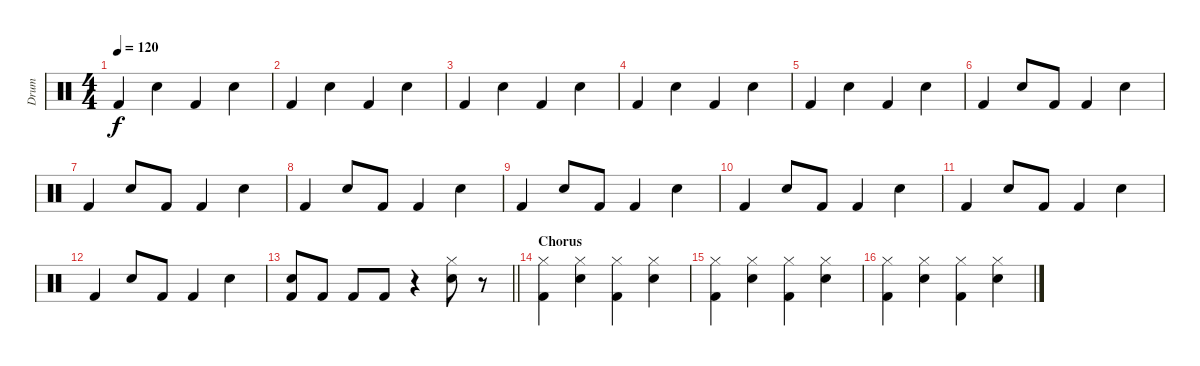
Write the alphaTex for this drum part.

\track ("Drum" "Drum") {instrument percussion}
\staff {score}
\articulation defaults
\ts (4 4)
\tempo 120
\clef neutral
\ks c "Kick (hit) 2".4{dy f} "Electric Snare (hit)".4 "Kick (hit) 2".4 "Electric Snare (hit)".4
|
"Kick (hit) 2".4 "Electric Snare (hit)".4 "Kick (hit) 2".4 "Electric Snare (hit)".4 |
"Kick (hit) 2".4 "Electric Snare (hit)".4 "Kick (hit) 2".4 "Electric Snare (hit)".4 |
"Kick (hit) 2".4 "Electric Snare (hit)".4 "Kick (hit) 2".4 "Electric Snare (hit)".4 |
"Kick (hit) 2".4 "Electric Snare (hit)".4 "Kick (hit) 2".4 "Electric Snare (hit)".4 |
"Kick (hit) 2".4 "Electric Snare (hit)".8 "Kick (hit) 2".8 "Kick (hit) 2".4 "Electric Snare (hit)".4 |
"Kick (hit) 2".4 "Electric Snare (hit)".8 "Kick (hit) 2".8 "Kick (hit) 2".4 "Electric Snare (hit)".4 |
"Kick (hit) 2".4 "Electric Snare (hit)".8 "Kick (hit) 2".8 "Kick (hit) 2".4 "Electric Snare (hit)".4 |
"Kick (hit) 2".4 "Electric Snare (hit)".8 "Kick (hit) 2".8 "Kick (hit) 2".4 "Electric Snare (hit)".4 |
"Kick (hit) 2".4 "Electric Snare (hit)".8 "Kick (hit) 2".8 "Kick (hit) 2".4 "Electric Snare (hit)".4 |
"Kick (hit) 2".4 "Electric Snare (hit)".8 "Kick (hit) 2".8 "Kick (hit) 2".4 "Electric Snare (hit)".4 |
"Kick (hit) 2".4 "Electric Snare (hit)".8 "Kick (hit) 2".8 "Kick (hit) 2".4 "Electric Snare (hit)".4 |
\barLineRight lightlight
("Electric Snare (hit)" "Kick (hit) 2").8 "Kick (hit) 2".8 "Kick (hit) 2".8 "Kick (hit) 2".8 r.4 ("Hi-Hat (closed)" "Electric Snare (hit)").8 r.8 |
\section ("" "Chorus")
("Hi-Hat (closed)" "Kick (hit) 2").4 ("Hi-Hat (closed)" "Electric Snare (hit)").4 ("Hi-Hat (closed)" "Kick (hit) 2").4 ("Hi-Hat (closed)" "Electric Snare (hit)").4 |
("Hi-Hat (closed)" "Kick (hit) 2").4 ("Hi-Hat (closed)" "Electric Snare (hit)").4 ("Hi-Hat (closed)" "Kick (hit) 2").4 ("Hi-Hat (closed)" "Electric Snare (hit)").4 |
("Hi-Hat (closed)" "Kick (hit) 2").4 ("Hi-Hat (closed)" "Electric Snare (hit)").4 ("Hi-Hat (closed)" "Kick (hit) 2").4 ("Hi-Hat (closed)" "Electric Snare (hit)").4
